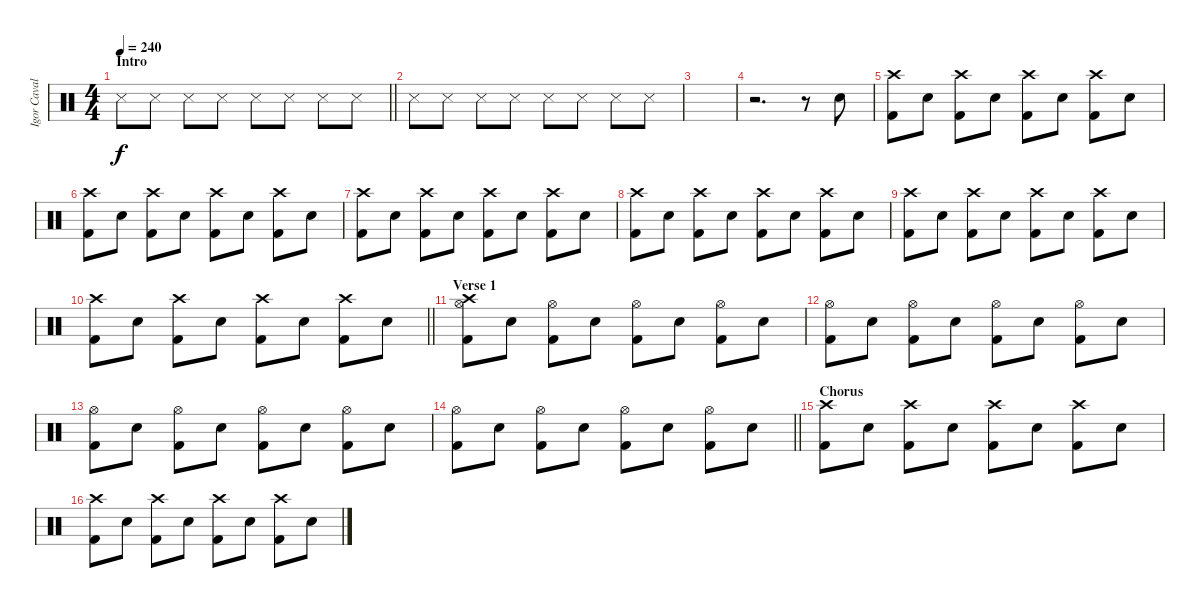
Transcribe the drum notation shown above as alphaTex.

\track ("Igor Cavalera" "Igor Caval") {instrument percussion}
\staff {score}
\articulation defaults
\ts (4 4)
\section ("" "Intro")
\tempo 240
\clef neutral
\barLineRight lightlight
\ks c "Snare (side stick) 3".8{dy f} "Snare (side stick) 3".8 "Snare (side stick) 3".8 "Snare (side stick) 3".8 "Snare (side stick) 3".8 "Snare (side stick) 3".8 "Snare (side stick) 3".8 "Snare (side stick) 3".8
|
"Snare (side stick) 3".8 "Snare (side stick) 3".8 "Snare (side stick) 3".8 "Snare (side stick) 3".8 "Snare (side stick) 3".8 "Snare (side stick) 3".8 "Snare (side stick) 3".8 "Snare (side stick) 3".8 |
|
r.2{d} r.8 "Electric Snare (hit)".8 |
("Crash high (hit)" "Kick (hit) 2").8 "Electric Snare (hit)".8 ("Crash high (hit)" "Kick (hit) 2").8 "Electric Snare (hit)".8 ("Crash high (hit)" "Kick (hit) 2").8 "Electric Snare (hit)".8 ("Crash high (hit)" "Kick (hit) 2").8 "Electric Snare (hit)".8 |
("Crash high (hit)" "Kick (hit) 2").8 "Electric Snare (hit)".8 ("Crash high (hit)" "Kick (hit) 2").8 "Electric Snare (hit)".8 ("Crash high (hit)" "Kick (hit) 2").8 "Electric Snare (hit)".8 ("Crash high (hit)" "Kick (hit) 2").8 "Electric Snare (hit)".8 |
("Crash high (hit)" "Kick (hit) 2").8 "Electric Snare (hit)".8 ("Crash high (hit)" "Kick (hit) 2").8 "Electric Snare (hit)".8 ("Crash high (hit)" "Kick (hit) 2").8 "Electric Snare (hit)".8 ("Crash high (hit)" "Kick (hit) 2").8 "Electric Snare (hit)".8 |
("Crash high (hit)" "Kick (hit) 2").8 "Electric Snare (hit)".8 ("Crash high (hit)" "Kick (hit) 2").8 "Electric Snare (hit)".8 ("Crash high (hit)" "Kick (hit) 2").8 "Electric Snare (hit)".8 ("Crash high (hit)" "Kick (hit) 2").8 "Electric Snare (hit)".8 |
("Crash high (hit)" "Kick (hit) 2").8 "Electric Snare (hit)".8 ("Crash high (hit)" "Kick (hit) 2").8 "Electric Snare (hit)".8 ("Crash high (hit)" "Kick (hit) 2").8 "Electric Snare (hit)".8 ("Crash high (hit)" "Kick (hit) 2").8 "Electric Snare (hit)".8 |
\barLineRight lightlight
("Crash high (hit)" "Kick (hit) 2").8 "Electric Snare (hit)".8 ("Crash high (hit)" "Kick (hit) 2").8 "Electric Snare (hit)".8 ("Crash high (hit)" "Kick (hit) 2").8 "Electric Snare (hit)".8 ("Crash high (hit)" "Kick (hit) 2").8 "Electric Snare (hit)".8 |
\section ("" "Verse 1")
("Crash high (hit)" "Hi-Hat (open)" "Kick (hit) 2").8 "Electric Snare (hit)".8 ("Hi-Hat (open)" "Kick (hit) 2").8 "Electric Snare (hit)".8 ("Hi-Hat (open)" "Kick (hit) 2").8 "Electric Snare (hit)".8 ("Hi-Hat (open)" "Kick (hit) 2").8 "Electric Snare (hit)".8 |
("Hi-Hat (open)" "Kick (hit) 2").8 "Electric Snare (hit)".8 ("Hi-Hat (open)" "Kick (hit) 2").8 "Electric Snare (hit)".8 ("Hi-Hat (open)" "Kick (hit) 2").8 "Electric Snare (hit)".8 ("Hi-Hat (open)" "Kick (hit) 2").8 "Electric Snare (hit)".8 |
("Hi-Hat (open)" "Kick (hit) 2").8 "Electric Snare (hit)".8 ("Hi-Hat (open)" "Kick (hit) 2").8 "Electric Snare (hit)".8 ("Hi-Hat (open)" "Kick (hit) 2").8 "Electric Snare (hit)".8 ("Hi-Hat (open)" "Kick (hit) 2").8 "Electric Snare (hit)".8 |
\barLineRight lightlight
("Hi-Hat (open)" "Kick (hit) 2").8 "Electric Snare (hit)".8 ("Hi-Hat (open)" "Kick (hit) 2").8 "Electric Snare (hit)".8 ("Hi-Hat (open)" "Kick (hit) 2").8 "Electric Snare (hit)".8 ("Hi-Hat (open)" "Kick (hit) 2").8 "Electric Snare (hit)".8 |
\section ("" "Chorus")
("Crash high (hit)" "Kick (hit) 2").8 "Electric Snare (hit)".8 ("Crash high (hit)" "Kick (hit) 2").8 "Electric Snare (hit)".8 ("Crash high (hit)" "Kick (hit) 2").8 "Electric Snare (hit)".8 ("Crash high (hit)" "Kick (hit) 2").8 "Electric Snare (hit)".8 |
("Crash high (hit)" "Kick (hit) 2").8 "Electric Snare (hit)".8 ("Crash high (hit)" "Kick (hit) 2").8 "Electric Snare (hit)".8 ("Crash high (hit)" "Kick (hit) 2").8 "Electric Snare (hit)".8 ("Crash high (hit)" "Kick (hit) 2").8 "Electric Snare (hit)".8
